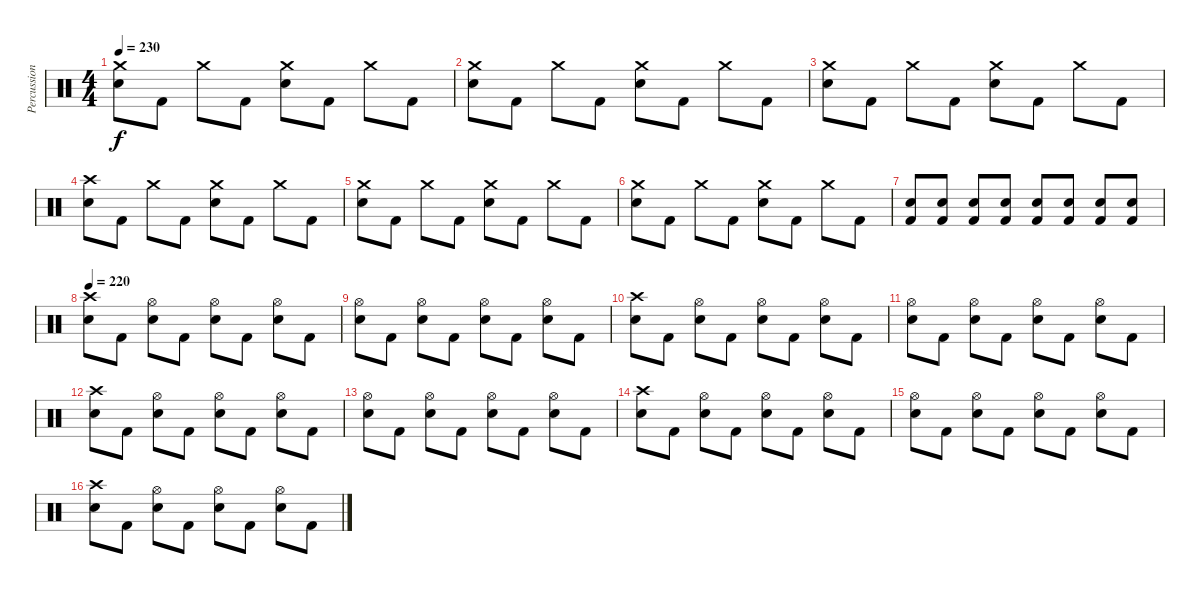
\track ("Percussions" "Percussion") {instrument percussion}
\staff {score}
\articulation defaults
\ts (4 4)
\tempo 230
\clef neutral
\ks c
("Electric Snare (hit)" "Crash medium (hit)").8{dy f} "Kick (hit) 2".8 "Crash medium (hit)".8 "Kick (hit) 2".8 ("Electric Snare (hit)" "Crash medium (hit)").8 "Kick (hit) 2".8 "Crash medium (hit)".8 "Kick (hit) 2".8 |
("Electric Snare (hit)" "Crash medium (hit)").8 "Kick (hit) 2".8 "Crash medium (hit)".8 "Kick (hit) 2".8 ("Electric Snare (hit)" "Crash medium (hit)").8 "Kick (hit) 2".8 "Crash medium (hit)".8 "Kick (hit) 2".8 |
("Electric Snare (hit)" "Crash medium (hit)").8 "Kick (hit) 2".8 "Crash medium (hit)".8 "Kick (hit) 2".8 ("Electric Snare (hit)" "Crash medium (hit)").8 "Kick (hit) 2".8 "Crash medium (hit)".8 "Kick (hit) 2".8 |
("Electric Snare (hit)" "Crash high (hit)").8 "Kick (hit) 2".8 "Crash medium (hit)".8 "Kick (hit) 2".8 ("Electric Snare (hit)" "Crash medium (hit)").8 "Kick (hit) 2".8 "Crash medium (hit)".8 "Kick (hit) 2".8 |
("Electric Snare (hit)" "Crash medium (hit)").8 "Kick (hit) 2".8 "Crash medium (hit)".8 "Kick (hit) 2".8 ("Electric Snare (hit)" "Crash medium (hit)").8 "Kick (hit) 2".8 "Crash medium (hit)".8 "Kick (hit) 2".8 |
("Electric Snare (hit)" "Crash medium (hit)").8 "Kick (hit) 2".8 "Crash medium (hit)".8 "Kick (hit) 2".8 ("Electric Snare (hit)" "Crash medium (hit)").8 "Kick (hit) 2".8 "Crash medium (hit)".8 "Kick (hit) 2".8 |
("Kick (hit) 2" "Electric Snare (hit)").8 ("Kick (hit) 2" "Electric Snare (hit)").8 ("Kick (hit) 2" "Electric Snare (hit)").8 ("Kick (hit) 2" "Electric Snare (hit)").8 ("Kick (hit) 2" "Electric Snare (hit)").8 ("Kick (hit) 2" "Electric Snare (hit)").8 ("Kick (hit) 2" "Electric Snare (hit)").8 ("Kick (hit) 2" "Electric Snare (hit)").8 |
\tempo 220
("Electric Snare (hit)" "Crash high (hit)").8 "Kick (hit) 2".8 ("Electric Snare (hit)" "Hi-Hat (open)").8 "Kick (hit) 2".8 ("Electric Snare (hit)" "Hi-Hat (open)").8 "Kick (hit) 2".8 ("Electric Snare (hit)" "Hi-Hat (open)").8 "Kick (hit) 2".8 |
("Electric Snare (hit)" "Hi-Hat (open)").8 "Kick (hit) 2".8 ("Electric Snare (hit)" "Hi-Hat (open)").8 "Kick (hit) 2".8 ("Electric Snare (hit)" "Hi-Hat (open)").8 "Kick (hit) 2".8 ("Electric Snare (hit)" "Hi-Hat (open)").8 "Kick (hit) 2".8 |
("Electric Snare (hit)" "Crash high (hit)").8 "Kick (hit) 2".8 ("Electric Snare (hit)" "Hi-Hat (open)").8 "Kick (hit) 2".8 ("Electric Snare (hit)" "Hi-Hat (open)").8 "Kick (hit) 2".8 ("Electric Snare (hit)" "Hi-Hat (open)").8 "Kick (hit) 2".8 |
("Electric Snare (hit)" "Hi-Hat (open)").8 "Kick (hit) 2".8 ("Electric Snare (hit)" "Hi-Hat (open)").8 "Kick (hit) 2".8 ("Electric Snare (hit)" "Hi-Hat (open)").8 "Kick (hit) 2".8 ("Electric Snare (hit)" "Hi-Hat (open)").8 "Kick (hit) 2".8 |
("Electric Snare (hit)" "Crash high (hit)").8 "Kick (hit) 2".8 ("Electric Snare (hit)" "Hi-Hat (open)").8 "Kick (hit) 2".8 ("Electric Snare (hit)" "Hi-Hat (open)").8 "Kick (hit) 2".8 ("Electric Snare (hit)" "Hi-Hat (open)").8 "Kick (hit) 2".8 |
("Electric Snare (hit)" "Hi-Hat (open)").8 "Kick (hit) 2".8 ("Electric Snare (hit)" "Hi-Hat (open)").8 "Kick (hit) 2".8 ("Electric Snare (hit)" "Hi-Hat (open)").8 "Kick (hit) 2".8 ("Electric Snare (hit)" "Hi-Hat (open)").8 "Kick (hit) 2".8 |
("Electric Snare (hit)" "Crash high (hit)").8 "Kick (hit) 2".8 ("Electric Snare (hit)" "Hi-Hat (open)").8 "Kick (hit) 2".8 ("Electric Snare (hit)" "Hi-Hat (open)").8 "Kick (hit) 2".8 ("Electric Snare (hit)" "Hi-Hat (open)").8 "Kick (hit) 2".8 |
("Electric Snare (hit)" "Hi-Hat (open)").8 "Kick (hit) 2".8 ("Electric Snare (hit)" "Hi-Hat (open)").8 "Kick (hit) 2".8 ("Electric Snare (hit)" "Hi-Hat (open)").8 "Kick (hit) 2".8 ("Electric Snare (hit)" "Hi-Hat (open)").8 "Kick (hit) 2".8 |
("Electric Snare (hit)" "Crash high (hit)").8 "Kick (hit) 2".8 ("Electric Snare (hit)" "Hi-Hat (open)").8 "Kick (hit) 2".8 ("Electric Snare (hit)" "Hi-Hat (open)").8 "Kick (hit) 2".8 ("Electric Snare (hit)" "Hi-Hat (open)").8 "Kick (hit) 2".8
